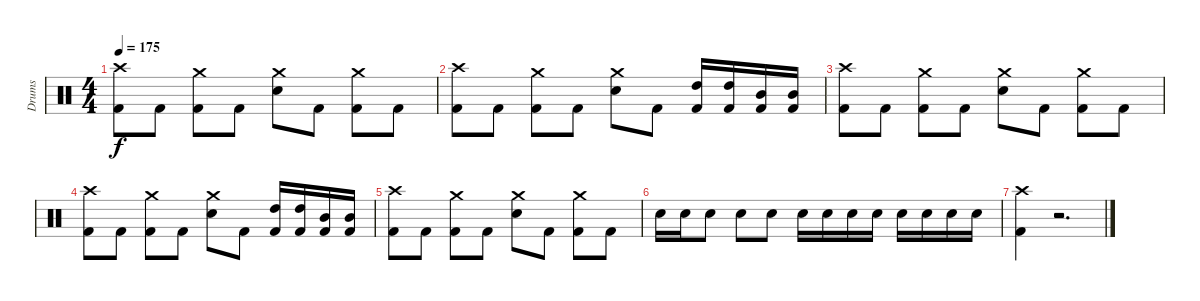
\track ("Drums" "Drums") {instrument percussion}
\staff {score}
\articulation defaults
\ts (4 4)
\tempo 175
\clef neutral
\ks c
("Crash high (hit)" "Kick (hit) 2").8{dy f} "Kick (hit) 2".8 ("Crash medium (hit)" "Kick (hit) 2").8 "Kick (hit) 2".8 ("Crash medium (hit)" "Snare (hit) 2").8 "Kick (hit) 2".8 ("Crash medium (hit)" "Kick (hit) 2").8 "Kick (hit) 2".8 |
("Crash high (hit)" "Kick (hit) 2").8 "Kick (hit) 2".8 ("Crash medium (hit)" "Kick (hit) 2").8 "Kick (hit) 2".8 ("Crash medium (hit)" "Snare (hit) 2").8 "Kick (hit) 2".8 ("High Tom (hit)" "Kick (hit) 2").16 ("High Tom (hit)" "Kick (hit) 2").16 ("Mid Tom (hit)" "Kick (hit) 2").16 ("Mid Tom (hit)" "Kick (hit) 2").16 |
("Crash high (hit)" "Kick (hit) 2").8 "Kick (hit) 2".8 ("Crash medium (hit)" "Kick (hit) 2").8 "Kick (hit) 2".8 ("Crash medium (hit)" "Snare (hit) 2").8 "Kick (hit) 2".8 ("Crash medium (hit)" "Kick (hit) 2").8 "Kick (hit) 2".8 |
("Crash high (hit)" "Kick (hit) 2").8 "Kick (hit) 2".8 ("Crash medium (hit)" "Kick (hit) 2").8 "Kick (hit) 2".8 ("Crash medium (hit)" "Snare (hit) 2").8 "Kick (hit) 2".8 ("High Tom (hit)" "Kick (hit) 2").16 ("High Tom (hit)" "Kick (hit) 2").16 ("Mid Tom (hit)" "Kick (hit) 2").16 ("Mid Tom (hit)" "Kick (hit) 2").16 |
("Crash high (hit)" "Kick (hit) 2").8 "Kick (hit) 2".8 ("Crash medium (hit)" "Kick (hit) 2").8 "Kick (hit) 2".8 ("Crash medium (hit)" "Snare (hit) 2").8 "Kick (hit) 2".8 ("Crash medium (hit)" "Kick (hit) 2").8 "Kick (hit) 2".8 |
"Snare (hit) 2".16 "Snare (hit) 2".16 "Snare (hit) 2".8 "Snare (hit) 2".8 "Snare (hit) 2".8 "Snare (hit) 2".16 "Snare (hit) 2".16 "Snare (hit) 2".16 "Snare (hit) 2".16 "Snare (hit) 2".16 "Snare (hit) 2".16 "Snare (hit) 2".16 "Snare (hit) 2".16 |
("Crash high (hit)" "Kick (hit) 2").4 r.2{d}
